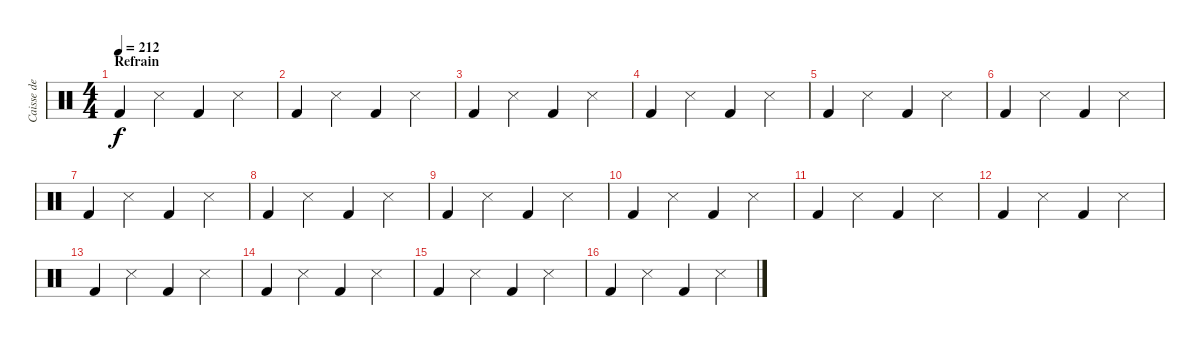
\track ("Caisse de guitare" "Caisse de ") {instrument percussion}
\staff {score}
\articulation defaults
\ts (4 4)
\section ("" "Refrain")
\tempo 212
\clef neutral
\ks c "Kick (hit) 2".4{dy f} "Metronome (hit)".4 "Kick (hit) 2".4 "Metronome (hit)".4
|
"Kick (hit) 2".4 "Metronome (hit)".4 "Kick (hit) 2".4 "Metronome (hit)".4 |
"Kick (hit) 2".4 "Metronome (hit)".4 "Kick (hit) 2".4 "Metronome (hit)".4 |
"Kick (hit) 2".4 "Metronome (hit)".4 "Kick (hit) 2".4 "Metronome (hit)".4 |
"Kick (hit) 2".4 "Metronome (hit)".4 "Kick (hit) 2".4 "Metronome (hit)".4 |
"Kick (hit) 2".4 "Metronome (hit)".4 "Kick (hit) 2".4 "Metronome (hit)".4 |
"Kick (hit) 2".4 "Metronome (hit)".4 "Kick (hit) 2".4 "Metronome (hit)".4 |
"Kick (hit) 2".4 "Metronome (hit)".4 "Kick (hit) 2".4 "Metronome (hit)".4 |
"Kick (hit) 2".4 "Metronome (hit)".4 "Kick (hit) 2".4 "Metronome (hit)".4 |
"Kick (hit) 2".4 "Metronome (hit)".4 "Kick (hit) 2".4 "Metronome (hit)".4 |
"Kick (hit) 2".4 "Metronome (hit)".4 "Kick (hit) 2".4 "Metronome (hit)".4 |
"Kick (hit) 2".4 "Metronome (hit)".4 "Kick (hit) 2".4 "Metronome (hit)".4 |
"Kick (hit) 2".4 "Metronome (hit)".4 "Kick (hit) 2".4 "Metronome (hit)".4 |
"Kick (hit) 2".4 "Metronome (hit)".4 "Kick (hit) 2".4 "Metronome (hit)".4 |
"Kick (hit) 2".4 "Metronome (hit)".4 "Kick (hit) 2".4 "Metronome (hit)".4 |
"Kick (hit) 2".4 "Metronome (hit)".4 "Kick (hit) 2".4 "Metronome (hit)".4
